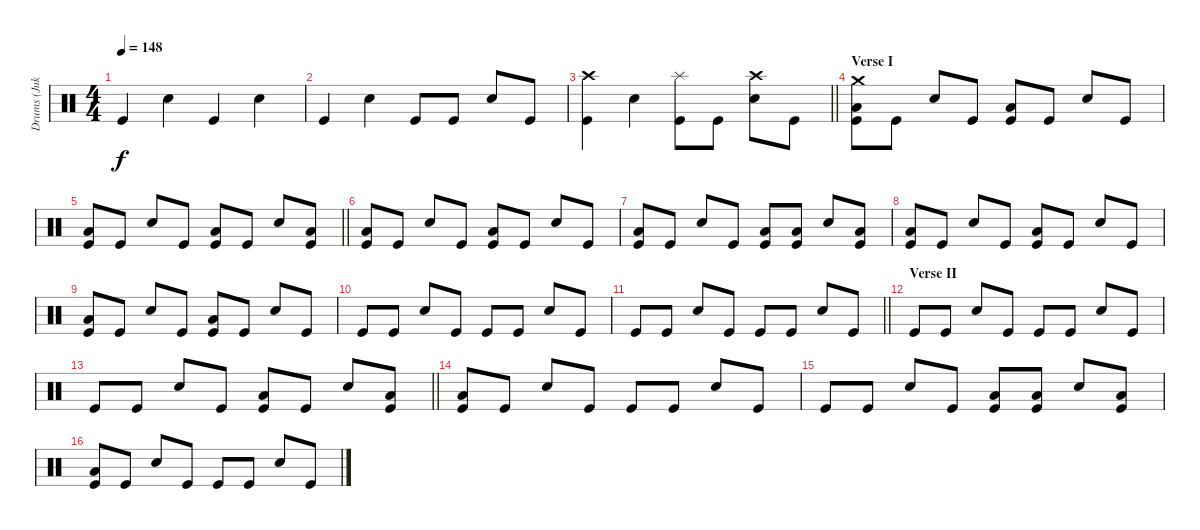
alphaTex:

\track ("Drums (Jukka)" "Drums (Juk") {instrument percussion}
\staff {score}
\articulation defaults
\ts (4 4)
\tempo 148
\clef neutral
\ks c "Kick (hit)".4{dy f} "Snare (hit) 2".4 "Kick (hit)".4 "Snare (hit) 2".4
|
"Kick (hit)".4 "Snare (hit) 2".4 "Kick (hit)".8 "Kick (hit)".8 "Snare (hit) 2".8 "Kick (hit)".8 |
\barLineRight lightlight
("Kick (hit)" "Crash high (hit)").4 "Snare (hit) 2".4 ("Kick (hit)" "Splash (hit)").8 "Kick (hit)".8 ("Snare (hit) 2" "Crash high (hit)").8 "Kick (hit)".8 |
\section ("" "Verse I")
("Kick (hit)" "Low Floor Tom (hit)" "Crash medium (hit)").8 "Kick (hit)".8 "Snare (hit) 2".8 "Kick (hit)".8 ("Kick (hit)" "Low Floor Tom (hit)").8 "Kick (hit)".8 "Snare (hit) 2".8 "Kick (hit)".8 |
\barLineRight lightlight
("Kick (hit)" "Low Floor Tom (hit)").8 "Kick (hit)".8 "Snare (hit) 2".8 "Kick (hit)".8 ("Kick (hit)" "Low Floor Tom (hit)").8 "Kick (hit)".8 "Snare (hit) 2".8 ("Kick (hit)" "Low Floor Tom (hit)").8 |
("Kick (hit)" "Low Floor Tom (hit)").8 "Kick (hit)".8 "Snare (hit) 2".8 "Kick (hit)".8 ("Kick (hit)" "Low Floor Tom (hit)").8 "Kick (hit)".8 "Snare (hit) 2".8 "Kick (hit)".8 |
("Kick (hit)" "Low Floor Tom (hit)").8 "Kick (hit)".8 "Snare (hit) 2".8 "Kick (hit)".8 ("Kick (hit)" "Low Floor Tom (hit)").8 ("Kick (hit)" "Low Floor Tom (hit)").8 "Snare (hit) 2".8 ("Kick (hit)" "Low Floor Tom (hit)").8 |
("Kick (hit)" "Low Floor Tom (hit)").8 "Kick (hit)".8 "Snare (hit) 2".8 "Kick (hit)".8 ("Kick (hit)" "Low Floor Tom (hit)").8 "Kick (hit)".8 "Snare (hit) 2".8 "Kick (hit)".8 |
("Kick (hit)" "Low Floor Tom (hit)").8 "Kick (hit)".8 "Snare (hit) 2".8 "Kick (hit)".8 ("Kick (hit)" "Low Floor Tom (hit)").8 "Kick (hit)".8 "Snare (hit) 2".8 "Kick (hit)".8 |
"Kick (hit)".8 "Kick (hit)".8 "Snare (hit) 2".8 "Kick (hit)".8 "Kick (hit)".8 "Kick (hit)".8 "Snare (hit) 2".8 "Kick (hit)".8 |
\barLineRight lightlight "Kick (hit)".8 "Kick (hit)".8 "Snare (hit) 2".8 "Kick (hit)".8 "Kick (hit)".8 "Kick (hit)".8 "Snare (hit) 2".8 "Kick (hit)".8
|
\section ("" "Verse II")
"Kick (hit)".8 "Kick (hit)".8 "Snare (hit) 2".8 "Kick (hit)".8 "Kick (hit)".8 "Kick (hit)".8 "Snare (hit) 2".8 "Kick (hit)".8 |
\barLineRight lightlight "Kick (hit)".8 "Kick (hit)".8 "Snare (hit) 2".8 "Kick (hit)".8
("Kick (hit)" "Low Floor Tom (hit)").8 "Kick (hit)".8 "Snare (hit) 2".8 ("Kick (hit)" "Low Floor Tom (hit)").8 |
("Kick (hit)" "Low Floor Tom (hit)").8 "Kick (hit)".8 "Snare (hit) 2".8 "Kick (hit)".8 "Kick (hit)".8 "Kick (hit)".8 "Snare (hit) 2".8 "Kick (hit)".8 |
"Kick (hit)".8 "Kick (hit)".8 "Snare (hit) 2".8 "Kick (hit)".8 ("Kick (hit)" "Low Floor Tom (hit)").8 ("Kick (hit)" "Low Floor Tom (hit)").8 "Snare (hit) 2".8 ("Kick (hit)" "Low Floor Tom (hit)").8 |
("Kick (hit)" "Low Floor Tom (hit)").8 "Kick (hit)".8 "Snare (hit) 2".8 "Kick (hit)".8 "Kick (hit)".8 "Kick (hit)".8 "Snare (hit) 2".8 "Kick (hit)".8
